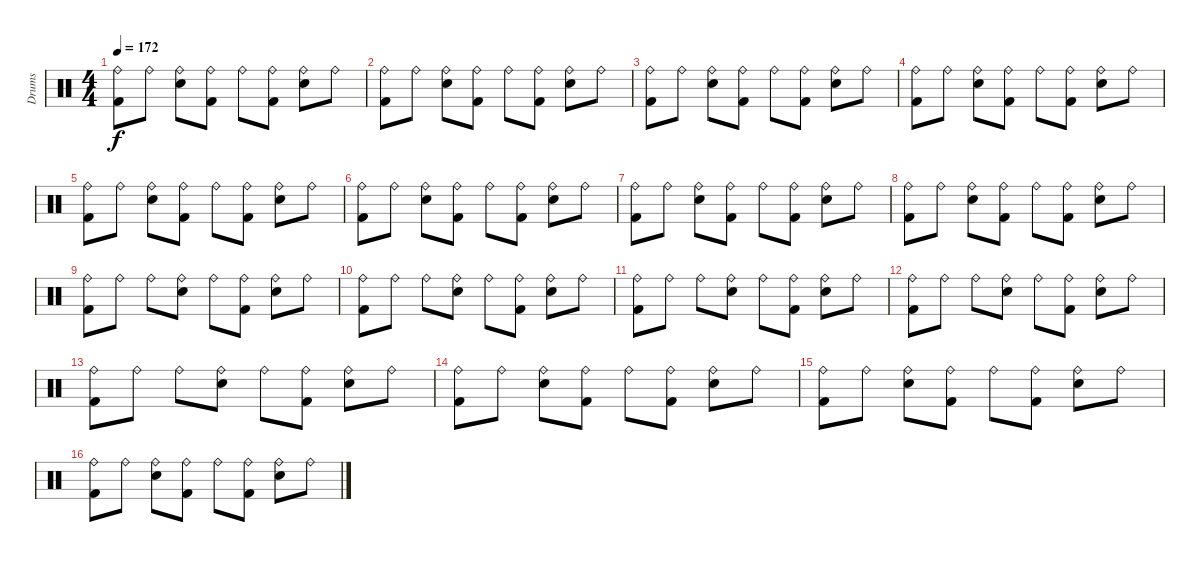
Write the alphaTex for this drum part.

\track ("Drums" "Drums") {instrument percussion}
\staff {score}
\articulation defaults
\ts (4 4)
\tempo 172
\clef neutral
\ks c
("Ride (bell)" "Kick (hit) 2").8{dy f} "Ride (bell)".8 ("Ride (bell)" "Electric Snare (hit)").8 ("Ride (bell)" "Kick (hit) 2").8 "Ride (bell)".8 ("Ride (bell)" "Kick (hit) 2").8 ("Ride (bell)" "Electric Snare (hit)").8 "Ride (bell)".8 |
("Ride (bell)" "Kick (hit) 2").8 "Ride (bell)".8 ("Ride (bell)" "Electric Snare (hit)").8 ("Ride (bell)" "Kick (hit) 2").8 "Ride (bell)".8 ("Ride (bell)" "Kick (hit) 2").8 ("Ride (bell)" "Electric Snare (hit)").8 "Ride (bell)".8 |
("Ride (bell)" "Kick (hit) 2").8 "Ride (bell)".8 ("Ride (bell)" "Electric Snare (hit)").8 ("Ride (bell)" "Kick (hit) 2").8 "Ride (bell)".8 ("Ride (bell)" "Kick (hit) 2").8 ("Ride (bell)" "Electric Snare (hit)").8 "Ride (bell)".8 |
("Ride (bell)" "Kick (hit) 2").8 "Ride (bell)".8 ("Ride (bell)" "Electric Snare (hit)").8 ("Ride (bell)" "Kick (hit) 2").8 "Ride (bell)".8 ("Ride (bell)" "Kick (hit) 2").8 ("Ride (bell)" "Electric Snare (hit)").8 "Ride (bell)".8 |
("Ride (bell)" "Kick (hit) 2").8 "Ride (bell)".8 ("Ride (bell)" "Electric Snare (hit)").8 ("Ride (bell)" "Kick (hit) 2").8 "Ride (bell)".8 ("Ride (bell)" "Kick (hit) 2").8 ("Ride (bell)" "Electric Snare (hit)").8 "Ride (bell)".8 |
("Ride (bell)" "Kick (hit) 2").8 "Ride (bell)".8 ("Ride (bell)" "Electric Snare (hit)").8 ("Ride (bell)" "Kick (hit) 2").8 "Ride (bell)".8 ("Ride (bell)" "Kick (hit) 2").8 ("Ride (bell)" "Electric Snare (hit)").8 "Ride (bell)".8 |
("Ride (bell)" "Kick (hit) 2").8 "Ride (bell)".8 ("Ride (bell)" "Electric Snare (hit)").8 ("Ride (bell)" "Kick (hit) 2").8 "Ride (bell)".8 ("Ride (bell)" "Kick (hit) 2").8 ("Ride (bell)" "Electric Snare (hit)").8 "Ride (bell)".8 |
("Ride (bell)" "Kick (hit) 2").8 "Ride (bell)".8 ("Ride (bell)" "Electric Snare (hit)").8 ("Ride (bell)" "Kick (hit) 2").8 "Ride (bell)".8 ("Ride (bell)" "Kick (hit) 2").8 ("Ride (bell)" "Electric Snare (hit)").8 "Ride (bell)".8 |
("Ride (bell)" "Kick (hit) 2").8 "Ride (bell)".8 "Ride (bell)".8 ("Ride (bell)" "Electric Snare (hit)").8 "Ride (bell)".8 ("Ride (bell)" "Kick (hit) 2").8 ("Ride (bell)" "Electric Snare (hit)").8 "Ride (bell)".8 |
("Ride (bell)" "Kick (hit) 2").8 "Ride (bell)".8 "Ride (bell)".8 ("Ride (bell)" "Electric Snare (hit)").8 "Ride (bell)".8 ("Ride (bell)" "Kick (hit) 2").8 ("Ride (bell)" "Electric Snare (hit)").8 "Ride (bell)".8 |
("Ride (bell)" "Kick (hit) 2").8 "Ride (bell)".8 "Ride (bell)".8 ("Ride (bell)" "Electric Snare (hit)").8 "Ride (bell)".8 ("Ride (bell)" "Kick (hit) 2").8 ("Ride (bell)" "Electric Snare (hit)").8 "Ride (bell)".8 |
("Ride (bell)" "Kick (hit) 2").8 "Ride (bell)".8 "Ride (bell)".8 ("Ride (bell)" "Electric Snare (hit)").8 "Ride (bell)".8 ("Ride (bell)" "Kick (hit) 2").8 ("Ride (bell)" "Electric Snare (hit)").8 "Ride (bell)".8 |
("Ride (bell)" "Kick (hit) 2").8 "Ride (bell)".8 "Ride (bell)".8 ("Ride (bell)" "Electric Snare (hit)").8 "Ride (bell)".8 ("Ride (bell)" "Kick (hit) 2").8 ("Ride (bell)" "Electric Snare (hit)").8 "Ride (bell)".8 |
("Ride (bell)" "Kick (hit) 2").8 "Ride (bell)".8 ("Ride (bell)" "Electric Snare (hit)").8 ("Ride (bell)" "Kick (hit) 2").8 "Ride (bell)".8 ("Ride (bell)" "Kick (hit) 2").8 ("Ride (bell)" "Electric Snare (hit)").8 "Ride (bell)".8 |
("Ride (bell)" "Kick (hit) 2").8 "Ride (bell)".8 ("Ride (bell)" "Electric Snare (hit)").8 ("Ride (bell)" "Kick (hit) 2").8 "Ride (bell)".8 ("Ride (bell)" "Kick (hit) 2").8 ("Ride (bell)" "Electric Snare (hit)").8 "Ride (bell)".8 |
("Ride (bell)" "Kick (hit) 2").8 "Ride (bell)".8 ("Ride (bell)" "Electric Snare (hit)").8 ("Ride (bell)" "Kick (hit) 2").8 "Ride (bell)".8 ("Ride (bell)" "Kick (hit) 2").8 ("Ride (bell)" "Electric Snare (hit)").8 "Ride (bell)".8
